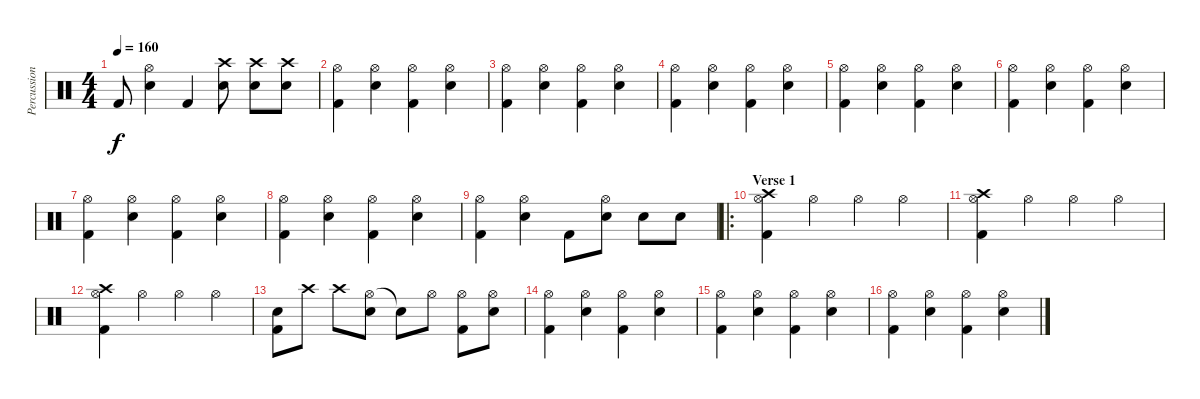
\track ("Percussion" "Percussion") {instrument percussion}
\staff {score}
\articulation defaults
\ts (4 4)
\tempo 160
\clef neutral
\ks c "Kick (hit) 2".8{dy f}
("Hi-Hat (open)" "Snare (hit) 2").4 "Kick (hit) 2".4 ("Crash high (hit)" "Snare (hit) 2").8 ("Crash high (hit)" "Snare (hit) 2").8 ("Crash high (hit)" "Snare (hit) 2").8 |
("Hi-Hat (open)" "Kick (hit) 2").4 ("Hi-Hat (open)" "Snare (hit) 2").4 ("Hi-Hat (open)" "Kick (hit) 2").4 ("Hi-Hat (open)" "Snare (hit) 2").4 |
("Hi-Hat (open)" "Kick (hit) 2").4 ("Hi-Hat (open)" "Snare (hit) 2").4 ("Hi-Hat (open)" "Kick (hit) 2").4 ("Hi-Hat (open)" "Snare (hit) 2").4 |
("Hi-Hat (open)" "Kick (hit) 2").4 ("Hi-Hat (open)" "Snare (hit) 2").4 ("Hi-Hat (open)" "Kick (hit) 2").4 ("Hi-Hat (open)" "Snare (hit) 2").4 |
("Hi-Hat (open)" "Kick (hit) 2").4 ("Hi-Hat (open)" "Snare (hit) 2").4 ("Hi-Hat (open)" "Kick (hit) 2").4 ("Hi-Hat (open)" "Snare (hit) 2").4 |
("Hi-Hat (open)" "Kick (hit) 2").4 ("Hi-Hat (open)" "Snare (hit) 2").4 ("Hi-Hat (open)" "Kick (hit) 2").4 ("Hi-Hat (open)" "Snare (hit) 2").4 |
("Hi-Hat (open)" "Kick (hit) 2").4 ("Hi-Hat (open)" "Snare (hit) 2").4 ("Hi-Hat (open)" "Kick (hit) 2").4 ("Hi-Hat (open)" "Snare (hit) 2").4 |
("Hi-Hat (open)" "Kick (hit) 2").4 ("Hi-Hat (open)" "Snare (hit) 2").4 ("Hi-Hat (open)" "Kick (hit) 2").4 ("Hi-Hat (open)" "Snare (hit) 2").4 |
("Hi-Hat (open)" "Kick (hit) 2").4 ("Hi-Hat (open)" "Snare (hit) 2").4 "Kick (hit) 2".8 ("Hi-Hat (open)" "Snare (hit) 2").8 "Snare (hit) 2".8 "Snare (hit) 2".8 |
\ro
\section ("" "Verse 1")
("Hi-Hat (open)" "Crash high (hit)" "Kick (hit) 2").4 "Hi-Hat (open)".4 "Hi-Hat (open)".4 "Hi-Hat (open)".4 |
("Hi-Hat (open)" "Crash high (hit)" "Kick (hit) 2").4 "Hi-Hat (open)".4 "Hi-Hat (open)".4 "Hi-Hat (open)".4 |
("Hi-Hat (open)" "Crash high (hit)" "Kick (hit) 2").4 "Hi-Hat (open)".4 "Hi-Hat (open)".4 "Hi-Hat (open)".4 |
("Snare (hit) 2" "Kick (hit) 2").8 "Crash high (hit)".8 "Crash high (hit)".8 ("Hi-Hat (open)" "Snare (hit) 2").8 "Snare (hit)"{t}.8 "Hi-Hat (open)".8 ("Hi-Hat (open)" "Kick (hit) 2").8 ("Hi-Hat (open)" "Snare (hit) 2").8 |
("Hi-Hat (open)" "Kick (hit) 2").4 ("Hi-Hat (open)" "Snare (hit) 2").4 ("Hi-Hat (open)" "Kick (hit) 2").4 ("Hi-Hat (open)" "Snare (hit) 2").4 |
("Hi-Hat (open)" "Kick (hit) 2").4 ("Hi-Hat (open)" "Snare (hit) 2").4 ("Hi-Hat (open)" "Kick (hit) 2").4 ("Hi-Hat (open)" "Snare (hit) 2").4 |
("Hi-Hat (open)" "Kick (hit) 2").4 ("Hi-Hat (open)" "Snare (hit) 2").4 ("Hi-Hat (open)" "Kick (hit) 2").4 ("Hi-Hat (open)" "Snare (hit) 2").4
